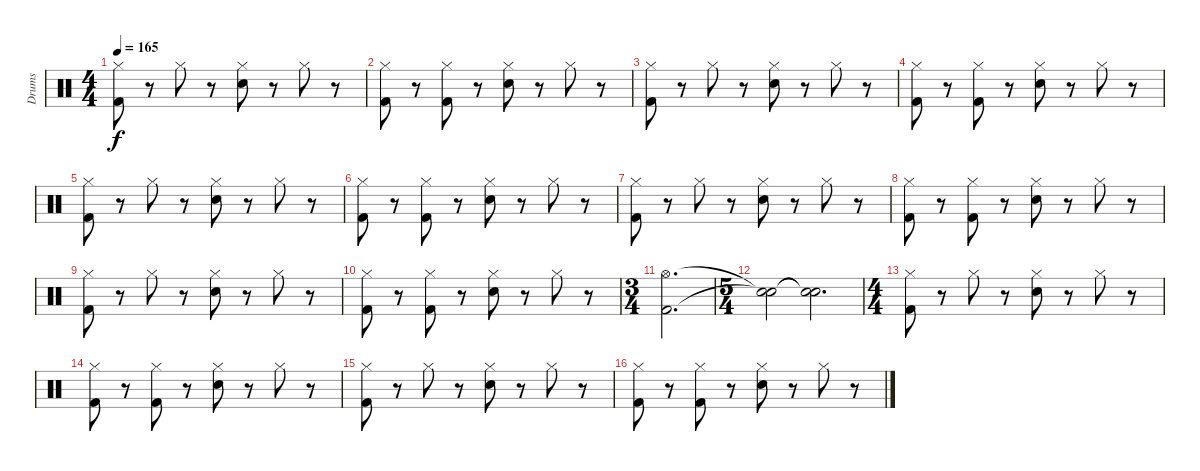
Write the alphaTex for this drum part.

\track ("Drums" "Drums") {instrument percussion}
\staff {score}
\articulation defaults
\ts (4 4)
\tempo 165
\clef neutral
\ks c
("Hi-Hat (closed)" "Kick (hit) 2").8{dy f} r.8 "Hi-Hat (closed)".8 r.8 ("Hi-Hat (closed)" "Electric Snare (hit)").8 r.8 "Hi-Hat (closed)".8 r.8 |
("Hi-Hat (closed)" "Kick (hit) 2").8 r.8 ("Hi-Hat (closed)" "Kick (hit) 2").8 r.8 ("Hi-Hat (closed)" "Electric Snare (hit)").8 r.8 "Hi-Hat (closed)".8 r.8 |
("Hi-Hat (closed)" "Kick (hit) 2").8 r.8 "Hi-Hat (closed)".8 r.8 ("Hi-Hat (closed)" "Electric Snare (hit)").8 r.8 "Hi-Hat (closed)".8 r.8 |
("Hi-Hat (closed)" "Kick (hit) 2").8 r.8 ("Hi-Hat (closed)" "Kick (hit) 2").8 r.8 ("Hi-Hat (closed)" "Electric Snare (hit)").8 r.8 "Hi-Hat (closed)".8 r.8 |
("Hi-Hat (closed)" "Kick (hit) 2").8 r.8 "Hi-Hat (closed)".8 r.8 ("Hi-Hat (closed)" "Electric Snare (hit)").8 r.8 "Hi-Hat (closed)".8 r.8 |
("Hi-Hat (closed)" "Kick (hit) 2").8 r.8 ("Hi-Hat (closed)" "Kick (hit) 2").8 r.8 ("Hi-Hat (closed)" "Electric Snare (hit)").8 r.8 "Hi-Hat (closed)".8 r.8 |
("Hi-Hat (closed)" "Kick (hit) 2").8 r.8 "Hi-Hat (closed)".8 r.8 ("Hi-Hat (closed)" "Electric Snare (hit)").8 r.8 "Hi-Hat (closed)".8 r.8 |
("Hi-Hat (closed)" "Kick (hit) 2").8 r.8 ("Hi-Hat (closed)" "Kick (hit) 2").8 r.8 ("Hi-Hat (closed)" "Electric Snare (hit)").8 r.8 "Hi-Hat (closed)".8 r.8 |
("Hi-Hat (closed)" "Kick (hit) 2").8 r.8 "Hi-Hat (closed)".8 r.8 ("Hi-Hat (closed)" "Electric Snare (hit)").8 r.8 "Hi-Hat (closed)".8 r.8 |
("Hi-Hat (closed)" "Kick (hit) 2").8 r.8 ("Hi-Hat (closed)" "Kick (hit) 2").8 r.8 ("Hi-Hat (closed)" "Electric Snare (hit)").8 r.8 "Hi-Hat (closed)".8 r.8 |
\ts (3 4)
("Hi-Hat (open)" "Kick (hit) 2").2{d} |
\ts (5 4)
("Snare (hit)"{t} "Snare (hit)"{t}).2 ("Snare (hit)"{t} "Snare (hit)"{t}).2{d} |
\ts (4 4)
("Hi-Hat (closed)" "Kick (hit) 2").8 r.8 "Hi-Hat (closed)".8 r.8 ("Hi-Hat (closed)" "Electric Snare (hit)").8 r.8 "Hi-Hat (closed)".8 r.8 |
("Hi-Hat (closed)" "Kick (hit) 2").8 r.8 ("Hi-Hat (closed)" "Kick (hit) 2").8 r.8 ("Hi-Hat (closed)" "Electric Snare (hit)").8 r.8 "Hi-Hat (closed)".8 r.8 |
("Hi-Hat (closed)" "Kick (hit) 2").8 r.8 "Hi-Hat (closed)".8 r.8 ("Hi-Hat (closed)" "Electric Snare (hit)").8 r.8 "Hi-Hat (closed)".8 r.8 |
("Hi-Hat (closed)" "Kick (hit) 2").8 r.8 ("Hi-Hat (closed)" "Kick (hit) 2").8 r.8 ("Hi-Hat (closed)" "Electric Snare (hit)").8 r.8 "Hi-Hat (closed)".8 r.8
